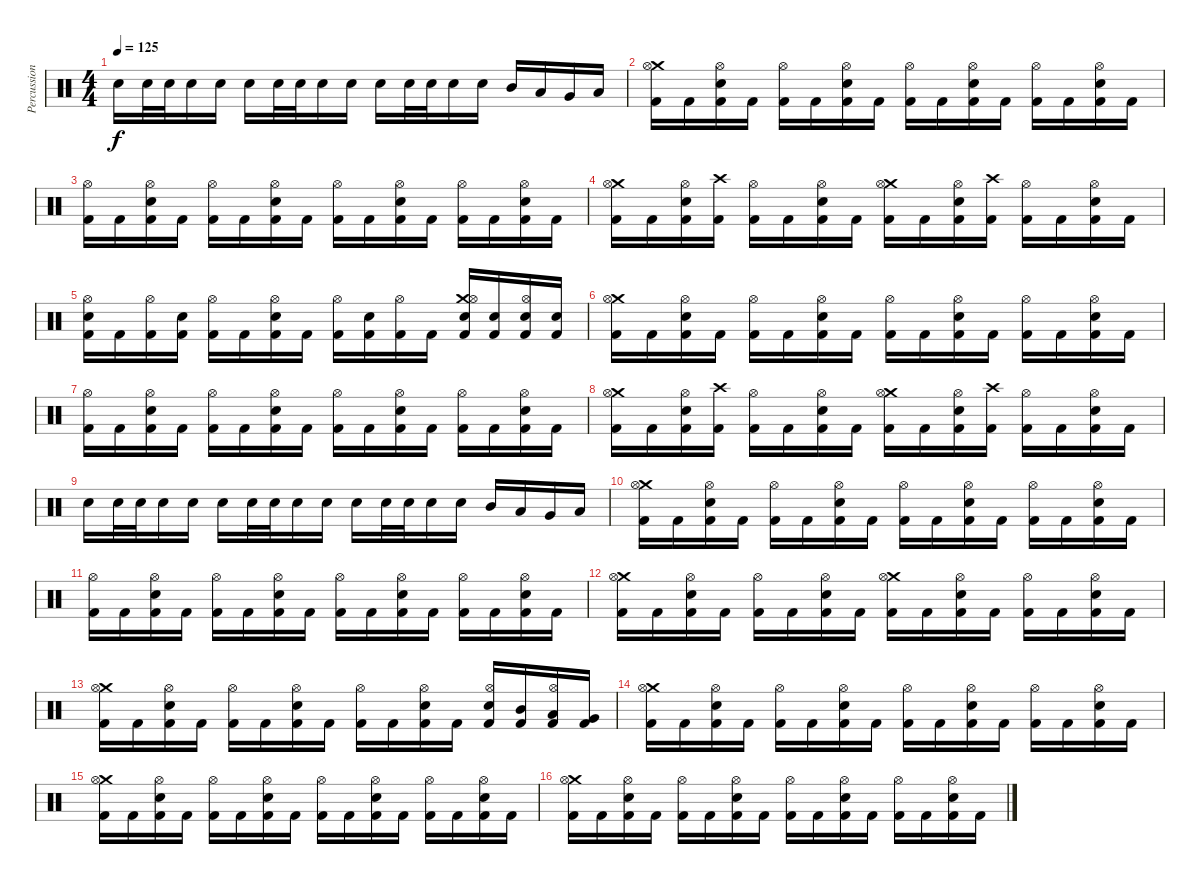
\track ("Percussion" "Percussion") {instrument percussion}
\staff {score}
\articulation defaults
\ts (4 4)
\tempo 125
\clef neutral
\ks c "Electric Snare (hit)".16{dy f} "Electric Snare (hit)".32 "Electric Snare (hit)".32 "Electric Snare (hit)".16 "Electric Snare (hit)".16 "Electric Snare (hit)".16 "Electric Snare (hit)".32 "Electric Snare (hit)".32 "Electric Snare (hit)".16 "Electric Snare (hit)".16 "Electric Snare (hit)".16 "Electric Snare (hit)".32 "Electric Snare (hit)".32 "Electric Snare (hit)".16 "Electric Snare (hit)".16 "Mid Tom (hit)".16 "Low Tom (hit)".16 "Very Low Tom (hit)".16 "Low Floor Tom (hit)".16
|
("Crash medium (hit)" "Hi-Hat (open)" "Kick (hit) 2").16 "Kick (hit) 2".16 ("Hi-Hat (open)" "Electric Snare (hit)" "Kick (hit) 2").16 "Kick (hit) 2".16 ("Hi-Hat (open)" "Kick (hit) 2").16 "Kick (hit) 2".16 ("Hi-Hat (open)" "Electric Snare (hit)" "Kick (hit) 2").16 "Kick (hit) 2".16 ("Hi-Hat (open)" "Kick (hit) 2").16 "Kick (hit) 2".16 ("Hi-Hat (open)" "Electric Snare (hit)" "Kick (hit) 2").16 "Kick (hit) 2".16 ("Hi-Hat (open)" "Kick (hit) 2").16 "Kick (hit) 2".16 ("Hi-Hat (open)" "Electric Snare (hit)" "Kick (hit) 2").16 "Kick (hit) 2".16 |
("Hi-Hat (open)" "Kick (hit) 2").16 "Kick (hit) 2".16 ("Hi-Hat (open)" "Electric Snare (hit)" "Kick (hit) 2").16 "Kick (hit) 2".16 ("Hi-Hat (open)" "Kick (hit) 2").16 "Kick (hit) 2".16 ("Hi-Hat (open)" "Electric Snare (hit)" "Kick (hit) 2").16 "Kick (hit) 2".16 ("Hi-Hat (open)" "Kick (hit) 2").16 "Kick (hit) 2".16 ("Hi-Hat (open)" "Electric Snare (hit)" "Kick (hit) 2").16 "Kick (hit) 2".16 ("Hi-Hat (open)" "Kick (hit) 2").16 "Kick (hit) 2".16 ("Hi-Hat (open)" "Electric Snare (hit)" "Kick (hit) 2").16 "Kick (hit) 2".16 |
("Crash medium (hit)" "Hi-Hat (open)" "Kick (hit) 2").16 "Kick (hit) 2".16 ("Hi-Hat (open)" "Electric Snare (hit)" "Kick (hit) 2").16 ("Crash high (hit)" "Kick (hit) 2").16 ("Hi-Hat (open)" "Kick (hit) 2").16 "Kick (hit) 2".16 ("Hi-Hat (open)" "Electric Snare (hit)" "Kick (hit) 2").16 "Kick (hit) 2".16 ("Crash medium (hit)" "Hi-Hat (open)" "Kick (hit) 2").16 "Kick (hit) 2".16 ("Hi-Hat (open)" "Electric Snare (hit)" "Kick (hit) 2").16 ("Crash high (hit)" "Kick (hit) 2").16 ("Hi-Hat (open)" "Kick (hit) 2").16 "Kick (hit) 2".16 ("Hi-Hat (open)" "Electric Snare (hit)" "Kick (hit) 2").16 "Kick (hit) 2".16 |
("Hi-Hat (open)" "Electric Snare (hit)" "Kick (hit) 2").16 "Kick (hit) 2".16 ("Hi-Hat (open)" "Kick (hit) 2").16 ("Electric Snare (hit)" "Kick (hit) 2").16 ("Hi-Hat (open)" "Kick (hit) 2").16 "Kick (hit) 2".16 ("Hi-Hat (open)" "Electric Snare (hit)" "Kick (hit) 2").16 "Kick (hit) 2".16 ("Hi-Hat (open)" "Kick (hit) 2").16 ("Electric Snare (hit)" "Kick (hit) 2").16 ("Hi-Hat (open)" "Kick (hit) 2").16 "Kick (hit) 2".16 ("Crash medium (hit)" "Hi-Hat (open)" "Electric Snare (hit)" "Kick (hit) 2").16 ("Electric Snare (hit)" "Kick (hit) 2").16 ("Hi-Hat (open)" "Electric Snare (hit)" "Kick (hit) 2").16 ("Electric Snare (hit)" "Kick (hit) 2").16 |
("Crash medium (hit)" "Hi-Hat (open)" "Kick (hit) 2").16 "Kick (hit) 2".16 ("Hi-Hat (open)" "Electric Snare (hit)" "Kick (hit) 2").16 "Kick (hit) 2".16 ("Hi-Hat (open)" "Kick (hit) 2").16 "Kick (hit) 2".16 ("Hi-Hat (open)" "Electric Snare (hit)" "Kick (hit) 2").16 "Kick (hit) 2".16 ("Hi-Hat (open)" "Kick (hit) 2").16 "Kick (hit) 2".16 ("Hi-Hat (open)" "Electric Snare (hit)" "Kick (hit) 2").16 "Kick (hit) 2".16 ("Hi-Hat (open)" "Kick (hit) 2").16 "Kick (hit) 2".16 ("Hi-Hat (open)" "Electric Snare (hit)" "Kick (hit) 2").16 "Kick (hit) 2".16 |
("Hi-Hat (open)" "Kick (hit) 2").16 "Kick (hit) 2".16 ("Hi-Hat (open)" "Electric Snare (hit)" "Kick (hit) 2").16 "Kick (hit) 2".16 ("Hi-Hat (open)" "Kick (hit) 2").16 "Kick (hit) 2".16 ("Hi-Hat (open)" "Electric Snare (hit)" "Kick (hit) 2").16 "Kick (hit) 2".16 ("Hi-Hat (open)" "Kick (hit) 2").16 "Kick (hit) 2".16 ("Hi-Hat (open)" "Electric Snare (hit)" "Kick (hit) 2").16 "Kick (hit) 2".16 ("Hi-Hat (open)" "Kick (hit) 2").16 "Kick (hit) 2".16 ("Hi-Hat (open)" "Electric Snare (hit)" "Kick (hit) 2").16 "Kick (hit) 2".16 |
("Crash medium (hit)" "Hi-Hat (open)" "Kick (hit) 2").16 "Kick (hit) 2".16 ("Hi-Hat (open)" "Electric Snare (hit)" "Kick (hit) 2").16 ("Crash high (hit)" "Kick (hit) 2").16 ("Hi-Hat (open)" "Kick (hit) 2").16 "Kick (hit) 2".16 ("Hi-Hat (open)" "Electric Snare (hit)" "Kick (hit) 2").16 "Kick (hit) 2".16 ("Crash medium (hit)" "Hi-Hat (open)" "Kick (hit) 2").16 "Kick (hit) 2".16 ("Hi-Hat (open)" "Electric Snare (hit)" "Kick (hit) 2").16 ("Crash high (hit)" "Kick (hit) 2").16 ("Hi-Hat (open)" "Kick (hit) 2").16 "Kick (hit) 2".16 ("Hi-Hat (open)" "Electric Snare (hit)" "Kick (hit) 2").16 "Kick (hit) 2".16 |
"Electric Snare (hit)".16 "Electric Snare (hit)".32 "Electric Snare (hit)".32 "Electric Snare (hit)".16 "Electric Snare (hit)".16 "Electric Snare (hit)".16 "Electric Snare (hit)".32 "Electric Snare (hit)".32 "Electric Snare (hit)".16 "Electric Snare (hit)".16 "Electric Snare (hit)".16 "Electric Snare (hit)".32 "Electric Snare (hit)".32 "Electric Snare (hit)".16 "Electric Snare (hit)".16 "Mid Tom (hit)".16 "Low Tom (hit)".16 "Very Low Tom (hit)".16 "Low Floor Tom (hit)".16 |
("Crash medium (hit)" "Hi-Hat (open)" "Kick (hit) 2").16 "Kick (hit) 2".16 ("Hi-Hat (open)" "Electric Snare (hit)" "Kick (hit) 2").16 "Kick (hit) 2".16 ("Hi-Hat (open)" "Kick (hit) 2").16 "Kick (hit) 2".16 ("Hi-Hat (open)" "Electric Snare (hit)" "Kick (hit) 2").16 "Kick (hit) 2".16 ("Hi-Hat (open)" "Kick (hit) 2").16 "Kick (hit) 2".16 ("Hi-Hat (open)" "Electric Snare (hit)" "Kick (hit) 2").16 "Kick (hit) 2".16 ("Hi-Hat (open)" "Kick (hit) 2").16 "Kick (hit) 2".16 ("Hi-Hat (open)" "Electric Snare (hit)" "Kick (hit) 2").16 "Kick (hit) 2".16 |
("Hi-Hat (open)" "Kick (hit) 2").16 "Kick (hit) 2".16 ("Hi-Hat (open)" "Electric Snare (hit)" "Kick (hit) 2").16 "Kick (hit) 2".16 ("Hi-Hat (open)" "Kick (hit) 2").16 "Kick (hit) 2".16 ("Hi-Hat (open)" "Electric Snare (hit)" "Kick (hit) 2").16 "Kick (hit) 2".16 ("Hi-Hat (open)" "Kick (hit) 2").16 "Kick (hit) 2".16 ("Hi-Hat (open)" "Electric Snare (hit)" "Kick (hit) 2").16 "Kick (hit) 2".16 ("Hi-Hat (open)" "Kick (hit) 2").16 "Kick (hit) 2".16 ("Hi-Hat (open)" "Electric Snare (hit)" "Kick (hit) 2").16 "Kick (hit) 2".16 |
("Crash medium (hit)" "Hi-Hat (open)" "Kick (hit) 2").16 "Kick (hit) 2".16 ("Hi-Hat (open)" "Electric Snare (hit)" "Kick (hit) 2").16 "Kick (hit) 2".16 ("Hi-Hat (open)" "Kick (hit) 2").16 "Kick (hit) 2".16 ("Hi-Hat (open)" "Electric Snare (hit)" "Kick (hit) 2").16 "Kick (hit) 2".16 ("Crash medium (hit)" "Hi-Hat (open)" "Kick (hit) 2").16 "Kick (hit) 2".16 ("Hi-Hat (open)" "Electric Snare (hit)" "Kick (hit) 2").16 "Kick (hit) 2".16 ("Hi-Hat (open)" "Kick (hit) 2").16 "Kick (hit) 2".16 ("Hi-Hat (open)" "Electric Snare (hit)" "Kick (hit) 2").16 "Kick (hit) 2".16 |
("Crash medium (hit)" "Hi-Hat (open)" "Kick (hit) 2").16 "Kick (hit) 2".16 ("Hi-Hat (open)" "Electric Snare (hit)" "Kick (hit) 2").16 "Kick (hit) 2".16 ("Hi-Hat (open)" "Kick (hit) 2").16 "Kick (hit) 2".16 ("Hi-Hat (open)" "Electric Snare (hit)" "Kick (hit) 2").16 "Kick (hit) 2".16 ("Hi-Hat (open)" "Kick (hit) 2").16 "Kick (hit) 2".16 ("Hi-Hat (open)" "Electric Snare (hit)" "Kick (hit) 2").16 "Kick (hit) 2".16 ("Hi-Hat (open)" "Electric Snare (hit)" "Kick (hit) 2").16 ("Mid Tom (hit)" "Kick (hit) 2").16 ("Hi-Hat (open)" "Low Tom (hit)" "Kick (hit) 2").16 ("Very Low Tom (hit)" "Kick (hit) 2").16 |
("Crash medium (hit)" "Hi-Hat (open)" "Kick (hit) 2").16 "Kick (hit) 2".16 ("Hi-Hat (open)" "Electric Snare (hit)" "Kick (hit) 2").16 "Kick (hit) 2".16 ("Hi-Hat (open)" "Kick (hit) 2").16 "Kick (hit) 2".16 ("Hi-Hat (open)" "Electric Snare (hit)" "Kick (hit) 2").16 "Kick (hit) 2".16 ("Hi-Hat (open)" "Kick (hit) 2").16 "Kick (hit) 2".16 ("Hi-Hat (open)" "Electric Snare (hit)" "Kick (hit) 2").16 "Kick (hit) 2".16 ("Hi-Hat (open)" "Kick (hit) 2").16 "Kick (hit) 2".16 ("Hi-Hat (open)" "Electric Snare (hit)" "Kick (hit) 2").16 "Kick (hit) 2".16 |
("Crash medium (hit)" "Hi-Hat (open)" "Kick (hit) 2").16 "Kick (hit) 2".16 ("Hi-Hat (open)" "Electric Snare (hit)" "Kick (hit) 2").16 "Kick (hit) 2".16 ("Hi-Hat (open)" "Kick (hit) 2").16 "Kick (hit) 2".16 ("Hi-Hat (open)" "Electric Snare (hit)" "Kick (hit) 2").16 "Kick (hit) 2".16 ("Hi-Hat (open)" "Kick (hit) 2").16 "Kick (hit) 2".16 ("Hi-Hat (open)" "Electric Snare (hit)" "Kick (hit) 2").16 "Kick (hit) 2".16 ("Hi-Hat (open)" "Kick (hit) 2").16 "Kick (hit) 2".16 ("Hi-Hat (open)" "Electric Snare (hit)" "Kick (hit) 2").16 "Kick (hit) 2".16 |
("Crash medium (hit)" "Hi-Hat (open)" "Kick (hit) 2").16 "Kick (hit) 2".16 ("Hi-Hat (open)" "Electric Snare (hit)" "Kick (hit) 2").16 "Kick (hit) 2".16 ("Hi-Hat (open)" "Kick (hit) 2").16 "Kick (hit) 2".16 ("Hi-Hat (open)" "Electric Snare (hit)" "Kick (hit) 2").16 "Kick (hit) 2".16 ("Hi-Hat (open)" "Kick (hit) 2").16 "Kick (hit) 2".16 ("Hi-Hat (open)" "Electric Snare (hit)" "Kick (hit) 2").16 "Kick (hit) 2".16 ("Hi-Hat (open)" "Kick (hit) 2").16 "Kick (hit) 2".16 ("Hi-Hat (open)" "Electric Snare (hit)" "Kick (hit) 2").16 "Kick (hit) 2".16
